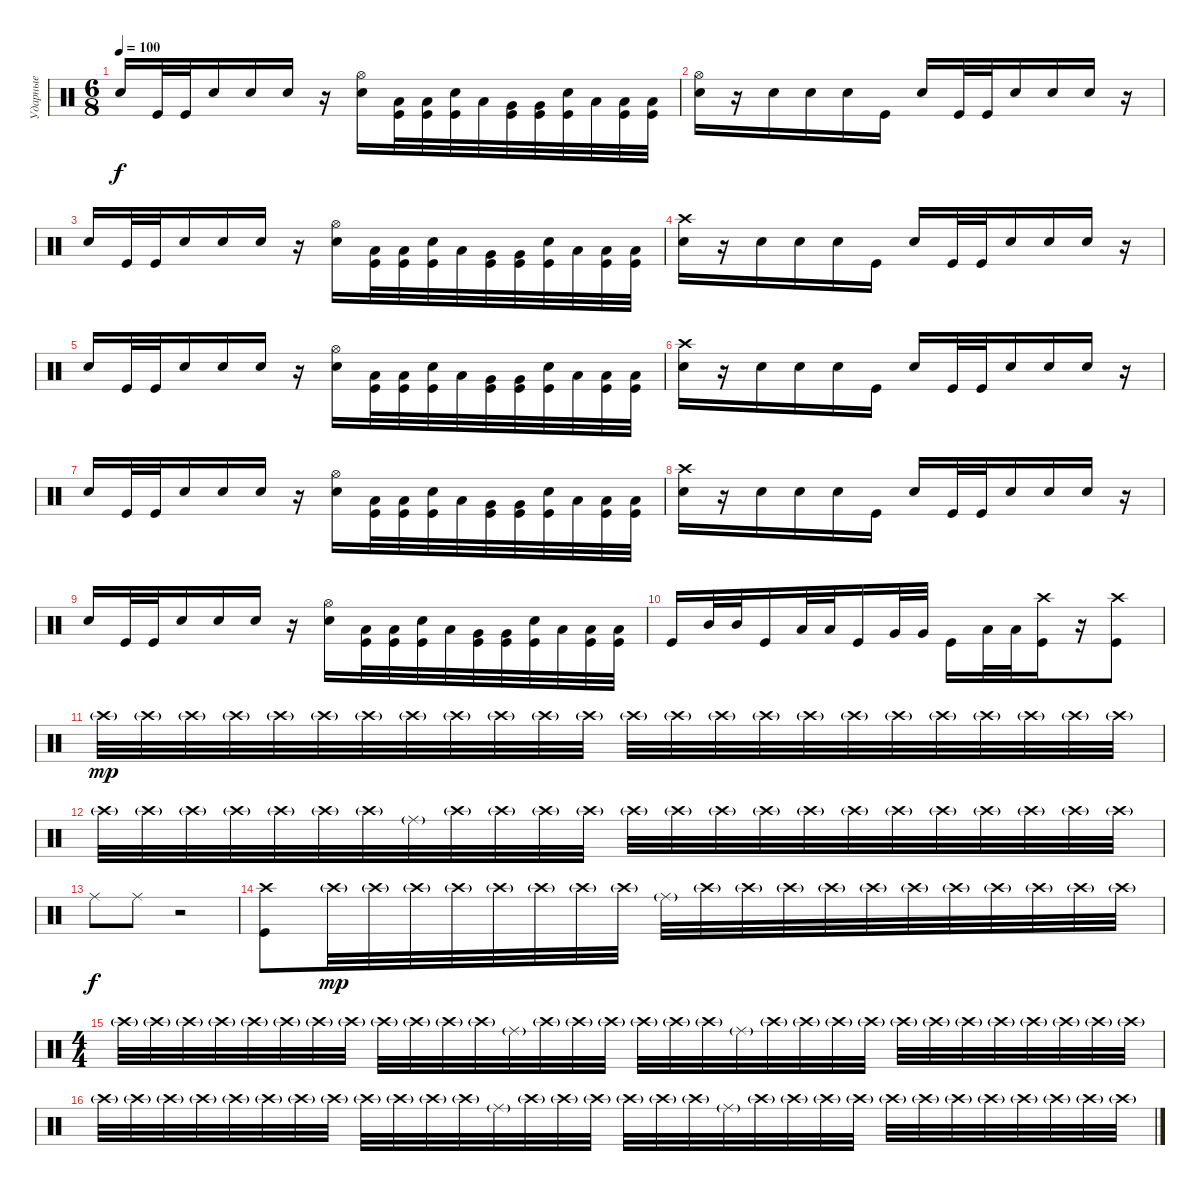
\track ("Ударные" "Ударные") {instrument percussion}
\staff {score}
\articulation defaults
\ts (6 8)
\tempo 100
\clef neutral
\ks c "Snare (hit) 2".16{dy f} "Kick (hit)".32 "Kick (hit)".32 "Snare (hit) 2".16 "Snare (hit) 2".16 "Snare (hit) 2".16
r.16 ("Hi-Hat (open)" "Snare (hit) 2").16 ("Low Tom (hit)" "Kick (hit)").32 ("Low Tom (hit)" "Kick (hit)").32 ("Snare (hit) 2" "Kick (hit)").32 "Low Tom (hit)".32 ("Very Low Tom (hit)" "Kick (hit)").32 ("Very Low Tom (hit)" "Kick (hit)").32 ("Snare (hit) 2" "Kick (hit)").32 "Low Floor Tom (hit)".32 ("Low Floor Tom (hit)" "Kick (hit)").32 ("Low Floor Tom (hit)" "Kick (hit)").32 |
("Hi-Hat (open)" "Snare (hit) 2").16 r.16 "Snare (hit) 2".16 "Snare (hit) 2".16 "Snare (hit) 2".16 "Kick (hit)".16 "Snare (hit) 2".16 "Kick (hit)".32 "Kick (hit)".32 "Snare (hit) 2".16 "Snare (hit) 2".16 "Snare (hit) 2".16 r.16 |
"Snare (hit) 2".16 "Kick (hit)".32 "Kick (hit)".32 "Snare (hit) 2".16 "Snare (hit) 2".16 "Snare (hit) 2".16 r.16 ("Hi-Hat (open)" "Snare (hit) 2").16 ("Low Tom (hit)" "Kick (hit)").32 ("Low Tom (hit)" "Kick (hit)").32 ("Snare (hit) 2" "Kick (hit)").32 "Low Tom (hit)".32 ("Very Low Tom (hit)" "Kick (hit)").32 ("Very Low Tom (hit)" "Kick (hit)").32 ("Snare (hit) 2" "Kick (hit)").32 "Low Floor Tom (hit)".32 ("Low Floor Tom (hit)" "Kick (hit)").32 ("Low Floor Tom (hit)" "Kick (hit)").32 |
("Crash high (hit)" "Snare (hit) 2").16 r.16 "Snare (hit) 2".16 "Snare (hit) 2".16 "Snare (hit) 2".16 "Kick (hit)".16 "Snare (hit) 2".16 "Kick (hit)".32 "Kick (hit)".32 "Snare (hit) 2".16 "Snare (hit) 2".16 "Snare (hit) 2".16 r.16 |
"Snare (hit) 2".16 "Kick (hit)".32 "Kick (hit)".32 "Snare (hit) 2".16 "Snare (hit) 2".16 "Snare (hit) 2".16 r.16 ("Hi-Hat (open)" "Snare (hit) 2").16 ("Low Tom (hit)" "Kick (hit)").32 ("Low Tom (hit)" "Kick (hit)").32 ("Snare (hit) 2" "Kick (hit)").32 "Low Tom (hit)".32 ("Very Low Tom (hit)" "Kick (hit)").32 ("Very Low Tom (hit)" "Kick (hit)").32 ("Snare (hit) 2" "Kick (hit)").32 "Low Floor Tom (hit)".32 ("Low Floor Tom (hit)" "Kick (hit)").32 ("Low Floor Tom (hit)" "Kick (hit)").32 |
("Crash high (hit)" "Snare (hit) 2").16 r.16 "Snare (hit) 2".16 "Snare (hit) 2".16 "Snare (hit) 2".16 "Kick (hit)".16 "Snare (hit) 2".16 "Kick (hit)".32 "Kick (hit)".32 "Snare (hit) 2".16 "Snare (hit) 2".16 "Snare (hit) 2".16 r.16 |
"Snare (hit) 2".16 "Kick (hit)".32 "Kick (hit)".32 "Snare (hit) 2".16 "Snare (hit) 2".16 "Snare (hit) 2".16 r.16 ("Hi-Hat (open)" "Snare (hit) 2").16 ("Low Tom (hit)" "Kick (hit)").32 ("Low Tom (hit)" "Kick (hit)").32 ("Snare (hit) 2" "Kick (hit)").32 "Low Tom (hit)".32 ("Very Low Tom (hit)" "Kick (hit)").32 ("Very Low Tom (hit)" "Kick (hit)").32 ("Snare (hit) 2" "Kick (hit)").32 "Low Floor Tom (hit)".32 ("Low Floor Tom (hit)" "Kick (hit)").32 ("Low Floor Tom (hit)" "Kick (hit)").32 |
("Crash high (hit)" "Snare (hit) 2").16 r.16 "Snare (hit) 2".16 "Snare (hit) 2".16 "Snare (hit) 2".16 "Kick (hit)".16 "Snare (hit) 2".16 "Kick (hit)".32 "Kick (hit)".32 "Snare (hit) 2".16 "Snare (hit) 2".16 "Snare (hit) 2".16 r.16 |
"Snare (hit) 2".16 "Kick (hit)".32 "Kick (hit)".32 "Snare (hit) 2".16 "Snare (hit) 2".16 "Snare (hit) 2".16 r.16 ("Hi-Hat (open)" "Snare (hit) 2").16 ("Low Tom (hit)" "Kick (hit)").32 ("Low Tom (hit)" "Kick (hit)").32 ("Snare (hit) 2" "Kick (hit)").32 "Low Tom (hit)".32 ("Very Low Tom (hit)" "Kick (hit)").32 ("Very Low Tom (hit)" "Kick (hit)").32 ("Snare (hit) 2" "Kick (hit)").32 "Low Floor Tom (hit)".32 ("Low Floor Tom (hit)" "Kick (hit)").32 ("Low Floor Tom (hit)" "Kick (hit)").32 |
"Kick (hit)".16 "Mid Tom (hit)".32 "Mid Tom (hit)".32 "Kick (hit)".16 "Low Tom (hit)".32 "Low Tom (hit)".32 "Kick (hit)".16 "Very Low Tom (hit)".32 "Very Low Tom (hit)".32 "Kick (hit)".16 "Low Floor Tom (hit)".32 "Low Floor Tom (hit)".32 ("Crash high (hit)" "Kick (hit)").16 r.16 ("Crash high (hit)" "Kick (hit)").8 |
"Crash high (hit)"{g}.32{dy mp} "Crash high (hit)"{g}.32 "Crash high (hit)"{g}.32 "Crash high (hit)"{g}.32 "Crash high (hit)"{g}.32 "Crash high (hit)"{g}.32 "Crash high (hit)"{g}.32 "Crash high (hit)"{g}.32 "Crash high (hit)"{g}.32 "Crash high (hit)"{g}.32 "Crash high (hit)"{g}.32 "Crash high (hit)"{g}.32 "Crash high (hit)"{g}.32 "Crash high (hit)"{g}.32 "Crash high (hit)"{g}.32 "Crash high (hit)"{g}.32 "Crash high (hit)"{g}.32 "Crash high (hit)"{g}.32 "Crash high (hit)"{g}.32 "Crash high (hit)"{g}.32 "Crash high (hit)"{g}.32 "Crash high (hit)"{g}.32 "Crash high (hit)"{g}.32 "Crash high (hit)"{g}.32 |
"Crash high (hit)"{g}.32 "Crash high (hit)"{g}.32 "Crash high (hit)"{g}.32 "Crash high (hit)"{g}.32 "Crash high (hit)"{g}.32 "Crash high (hit)"{g}.32 "Crash high (hit)"{g}.32 "Ride (middle)"{g}.32 "Crash high (hit)"{g}.32 "Crash high (hit)"{g}.32 "Crash high (hit)"{g}.32 "Crash high (hit)"{g}.32 "Crash high (hit)"{g}.32 "Crash high (hit)"{g}.32 "Crash high (hit)"{g}.32 "Crash high (hit)"{g}.32 "Crash high (hit)"{g}.32 "Crash high (hit)"{g}.32 "Crash high (hit)"{g}.32 "Crash high (hit)"{g}.32 "Crash high (hit)"{g}.32 "Crash high (hit)"{g}.32 "Crash high (hit)"{g}.32 "Crash high (hit)"{g}.32 |
"Ride (middle)".8{dy f} "Ride (middle)".8 r.2 |
("Crash high (hit)" "Kick (hit)").8 "Crash high (hit)"{g}.32{dy mp} "Crash high (hit)"{g}.32 "Crash high (hit)"{g}.32 "Crash high (hit)"{g}.32 "Crash high (hit)"{g}.32 "Crash high (hit)"{g}.32 "Crash high (hit)"{g}.32 "Crash high (hit)"{g}.32 "Ride (middle)"{g}.32 "Crash high (hit)"{g}.32 "Crash high (hit)"{g}.32 "Crash high (hit)"{g}.32 "Crash high (hit)"{g}.32 "Crash high (hit)"{g}.32 "Crash high (hit)"{g}.32 "Crash high (hit)"{g}.32 "Crash high (hit)"{g}.32 "Crash high (hit)"{g}.32 "Crash high (hit)"{g}.32 "Crash high (hit)"{g}.32 |
\ts (4 4)
"Crash high (hit)"{g}.32 "Crash high (hit)"{g}.32 "Crash high (hit)"{g}.32 "Crash high (hit)"{g}.32 "Crash high (hit)"{g}.32 "Crash high (hit)"{g}.32 "Crash high (hit)"{g}.32 "Crash high (hit)"{g}.32 "Crash high (hit)"{g}.32 "Crash high (hit)"{g}.32 "Crash high (hit)"{g}.32 "Crash high (hit)"{g}.32 "Ride (middle)"{g}.32 "Crash high (hit)"{g}.32 "Crash high (hit)"{g}.32 "Crash high (hit)"{g}.32 "Crash high (hit)"{g}.32 "Crash high (hit)"{g}.32 "Crash high (hit)"{g}.32 "Ride (middle)"{g}.32 "Crash high (hit)"{g}.32 "Crash high (hit)"{g}.32 "Crash high (hit)"{g}.32 "Crash high (hit)"{g}.32 "Crash high (hit)"{g}.32 "Crash high (hit)"{g}.32 "Crash high (hit)"{g}.32 "Crash high (hit)"{g}.32 "Crash high (hit)"{g}.32 "Crash high (hit)"{g}.32 "Crash high (hit)"{g}.32 "Crash high (hit)"{g}.32 |
"Crash high (hit)"{g}.32{volume 6} "Crash high (hit)"{g}.32 "Crash high (hit)"{g}.32 "Crash high (hit)"{g}.32 "Crash high (hit)"{g}.32 "Crash high (hit)"{g}.32 "Crash high (hit)"{g}.32 "Crash high (hit)"{g}.32 "Crash high (hit)"{g}.32 "Crash high (hit)"{g}.32 "Crash high (hit)"{g}.32 "Crash high (hit)"{g}.32 "Ride (middle)"{g}.32 "Crash high (hit)"{g}.32 "Crash high (hit)"{g}.32 "Crash high (hit)"{g}.32 "Crash high (hit)"{g}.32 "Crash high (hit)"{g}.32 "Crash high (hit)"{g}.32 "Ride (middle)"{g}.32 "Crash high (hit)"{g}.32 "Crash high (hit)"{g}.32 "Crash high (hit)"{g}.32 "Crash high (hit)"{g}.32 "Crash high (hit)"{g}.32 "Crash high (hit)"{g}.32 "Crash high (hit)"{g}.32 "Crash high (hit)"{g}.32 "Crash high (hit)"{g}.32 "Crash high (hit)"{g}.32 "Crash high (hit)"{g}.32 "Crash high (hit)"{g}.32
